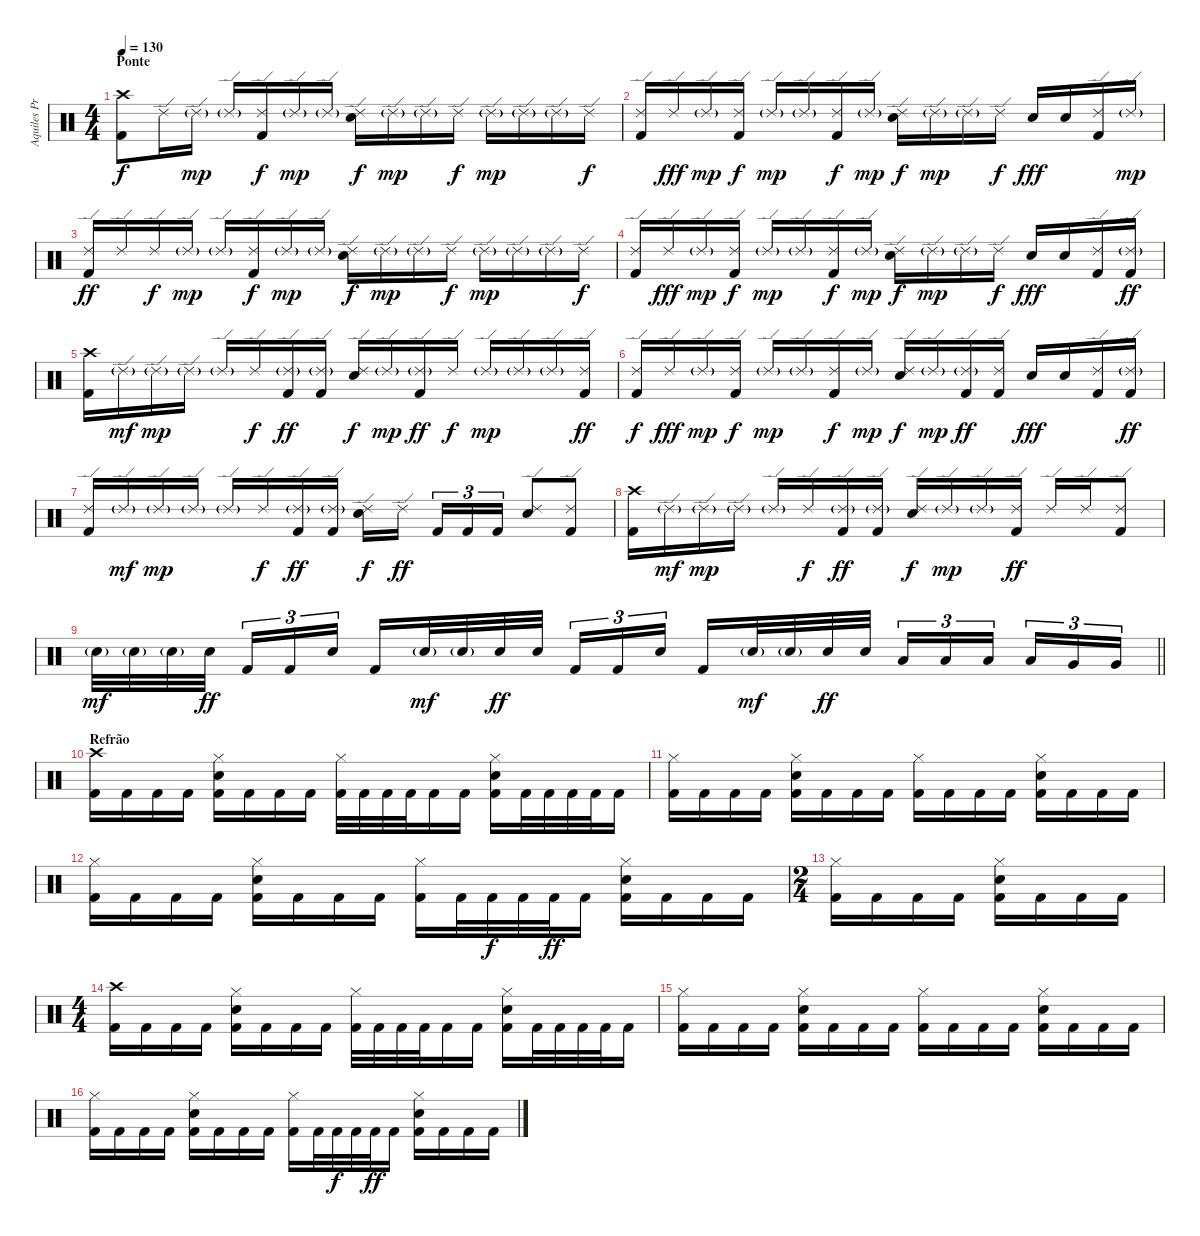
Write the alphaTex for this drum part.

\track ("Aquiles Priester" "Aquiles Pr") {instrument percussion}
\staff {score}
\articulation defaults
\ts (4 4)
\section ("" "Ponte")
\tempo 130
\clef neutral
\ks c
("Crash high (hit)" "Kick (hit) 2").8{dy f} "Ride (edge) 2".16 "Ride (edge) 2"{g}.16{dy mp} "Ride (edge) 2"{g}.16 ("Ride (edge) 2" "Kick (hit) 2").16{dy f} "Ride (edge) 2"{g}.16{dy mp} "Ride (edge) 2"{g}.16 ("Ride (edge) 2" "Electric Snare (hit)").16{dy f} "Ride (edge) 2"{g}.16{dy mp} "Ride (edge) 2"{g}.16 "Ride (edge) 2".16{dy f} "Ride (edge) 2"{g}.16{dy mp} "Ride (edge) 2"{g}.16 "Ride (edge) 2"{g}.16 "Ride (edge) 2".16{dy f} |
("Ride (edge) 2" "Kick (hit) 2").16 "Ride (edge) 2".16{dy fff} "Ride (edge) 2"{g}.16{dy mp} ("Ride (edge) 2" "Kick (hit) 2").16{dy f} "Ride (edge) 2"{g}.16{dy mp} "Ride (edge) 2"{g}.16 ("Ride (edge) 2" "Kick (hit) 2").16{dy f} "Ride (edge) 2"{g}.16{dy mp} ("Ride (edge) 2" "Electric Snare (hit)").16{dy f} "Ride (edge) 2"{g}.16{dy mp} "Ride (edge) 2"{g}.16 "Ride (edge) 2".16{dy f} "Electric Snare (hit)".16{dy fff} "Electric Snare (hit)".16 ("Ride (edge) 2" "Kick (hit) 2").16 "Ride (edge) 2"{g}.16{dy mp} |
("Ride (edge) 2" "Kick (hit) 2").16{dy ff} "Ride (edge) 2".16 "Ride (edge) 2".16{dy f} "Ride (edge) 2"{g}.16{dy mp} "Ride (edge) 2"{g}.16 ("Ride (edge) 2" "Kick (hit) 2").16{dy f} "Ride (edge) 2"{g}.16{dy mp} "Ride (edge) 2"{g}.16 ("Ride (edge) 2" "Electric Snare (hit)").16{dy f} "Ride (edge) 2"{g}.16{dy mp} "Ride (edge) 2"{g}.16 "Ride (edge) 2".16{dy f} "Ride (edge) 2"{g}.16{dy mp} "Ride (edge) 2"{g}.16 "Ride (edge) 2"{g}.16 "Ride (edge) 2".16{dy f} |
("Ride (edge) 2" "Kick (hit) 2").16 "Ride (edge) 2".16{dy fff} "Ride (edge) 2"{g}.16{dy mp} ("Ride (edge) 2" "Kick (hit) 2").16{dy f} "Ride (edge) 2"{g}.16{dy mp} "Ride (edge) 2"{g}.16 ("Ride (edge) 2" "Kick (hit) 2").16{dy f} "Ride (edge) 2"{g}.16{dy mp} ("Ride (edge) 2" "Electric Snare (hit)").16{dy f} "Ride (edge) 2"{g}.16{dy mp} "Ride (edge) 2"{g}.16 "Ride (edge) 2".16{dy f} "Electric Snare (hit)".16{dy fff} "Electric Snare (hit)".16 ("Ride (edge) 2" "Kick (hit) 2").16 ("Ride (edge) 2"{g} "Kick (hit) 2").16{dy ff} |
("Crash high (hit)" "Kick (hit) 2").16 "Ride (edge) 2"{g}.16{dy mf} "Ride (edge) 2"{g}.16{dy mp} "Ride (edge) 2"{g}.16 "Ride (edge) 2"{g}.16 "Ride (edge) 2".16{dy f} ("Ride (edge) 2"{g} "Kick (hit) 2").16{dy ff} ("Ride (edge) 2"{g} "Kick (hit) 2").16 ("Ride (edge) 2" "Electric Snare (hit)").16{dy f} "Ride (edge) 2"{g}.16{dy mp} ("Ride (edge) 2"{g} "Kick (hit) 2").16{dy ff} "Ride (edge) 2".16{dy f} "Ride (edge) 2"{g}.16{dy mp} "Ride (edge) 2"{g}.16 "Ride (edge) 2"{g}.16 ("Ride (edge) 2" "Kick (hit) 2").16{dy ff} |
("Ride (edge) 2" "Kick (hit) 2").16{dy f} "Ride (edge) 2".16{dy fff} "Ride (edge) 2"{g}.16{dy mp} ("Ride (edge) 2" "Kick (hit) 2").16{dy f} "Ride (edge) 2"{g}.16{dy mp} "Ride (edge) 2"{g}.16 ("Ride (edge) 2" "Kick (hit) 2").16{dy f} "Ride (edge) 2"{g}.16{dy mp} ("Ride (edge) 2" "Electric Snare (hit)").16{dy f} "Ride (edge) 2"{g}.16{dy mp} ("Ride (edge) 2"{g} "Kick (hit) 2").16{dy ff} ("Ride (edge) 2" "Kick (hit) 2").16 "Electric Snare (hit)".16{dy fff} "Electric Snare (hit)".16 ("Ride (edge) 2" "Kick (hit) 2").16 ("Ride (edge) 2"{g} "Kick (hit) 2").16{dy ff} |
("Ride (edge) 2" "Kick (hit) 2").16 "Ride (edge) 2"{g}.16{dy mf} "Ride (edge) 2"{g}.16{dy mp} "Ride (edge) 2"{g}.16 "Ride (edge) 2"{g}.16 "Ride (edge) 2".16{dy f} ("Ride (edge) 2"{g} "Kick (hit) 2").16{dy ff} ("Ride (edge) 2"{g} "Kick (hit) 2").16 ("Ride (edge) 2" "Electric Snare (hit)").16{dy f} "Ride (edge) 2".16{dy ff beam splitsecondary} "Kick (hit) 2".16{tu (3 2)} "Kick (hit) 2".16{tu (3 2)} "Kick (hit) 2".16{tu (3 2)} ("Ride (edge) 2" "Electric Snare (hit)").8 ("Ride (edge) 2" "Kick (hit) 2").8 |
("Crash high (hit)" "Kick (hit) 2").16 "Ride (edge) 2"{g}.16{dy mf} "Ride (edge) 2"{g}.16{dy mp} "Ride (edge) 2"{g}.16 "Ride (edge) 2"{g}.16 "Ride (edge) 2".16{dy f} ("Ride (edge) 2"{g} "Kick (hit) 2").16{dy ff} ("Ride (edge) 2"{g} "Kick (hit) 2").16 ("Ride (edge) 2" "Electric Snare (hit)").16{dy f} "Ride (edge) 2"{g}.16{dy mp} "Ride (edge) 2"{g}.16 ("Ride (edge) 2" "Kick (hit) 2").16{dy ff} "Ride (edge) 2".16 "Ride (edge) 2".16 ("Ride (edge) 2" "Kick (hit) 2").8 |
\barLineRight lightlight "Electric Snare (hit)"{g}.32{dy mf} "Electric Snare (hit)"{g}.32 "Electric Snare (hit)"{g}.32 "Electric Snare (hit)".32{dy ff beam splitsecondary} "Kick (hit) 2".16{tu (3 2)} "Kick (hit) 2".16{tu (3 2)} "Electric Snare (hit)".16{tu (3 2)} "Kick (hit) 2".16 "Electric Snare (hit)"{g}.32{dy mf} "Electric Snare (hit)"{g}.32 "Electric Snare (hit)".32{dy ff} "Electric Snare (hit)".32{beam splitsecondary} "Kick (hit) 2".16{tu (3 2)} "Kick (hit) 2".16{tu (3 2)} "Electric Snare (hit)".16{tu (3 2) beam splitsecondary} "Kick (hit) 2".16 "Electric Snare (hit)"{g}.32{dy mf} "Electric Snare (hit)"{g}.32 "Electric Snare (hit)".32{dy ff} "Electric Snare (hit)".32 "Low Tom (hit)".16{tu (3 2)} "Low Tom (hit)".16{tu (3 2)} "Low Tom (hit)".16{tu (3 2) beam splitsecondary} "Low Tom (hit)".16{tu (3 2)} "Very Low Tom (hit)".16{tu (3 2)} "Very Low Tom (hit)".16{tu (3 2)}
|
\section ("" "Refrão")
("Crash high (hit)" "Kick (hit) 2").16 "Kick (hit) 2".16 "Kick (hit) 2".16 "Kick (hit) 2".16 ("Hi-Hat (closed)" "Electric Snare (hit)" "Kick (hit) 2").16 "Kick (hit) 2".16 "Kick (hit) 2".16 "Kick (hit) 2".16 ("Hi-Hat (closed)" "Kick (hit) 2").32 "Kick (hit) 2".32 "Kick (hit) 2".32 "Kick (hit) 2".32 "Kick (hit) 2".16 "Kick (hit) 2".16 ("Hi-Hat (closed)" "Electric Snare (hit)" "Kick (hit) 2").16 "Kick (hit) 2".32 "Kick (hit) 2".32 "Kick (hit) 2".32 "Kick (hit) 2".32 "Kick (hit) 2".16 |
("Hi-Hat (closed)" "Kick (hit) 2").16 "Kick (hit) 2".16 "Kick (hit) 2".16 "Kick (hit) 2".16 ("Hi-Hat (closed)" "Electric Snare (hit)" "Kick (hit) 2").16 "Kick (hit) 2".16 "Kick (hit) 2".16 "Kick (hit) 2".16 ("Hi-Hat (closed)" "Kick (hit) 2").16 "Kick (hit) 2".16 "Kick (hit) 2".16 "Kick (hit) 2".16 ("Hi-Hat (closed)" "Electric Snare (hit)" "Kick (hit) 2").16 "Kick (hit) 2".16 "Kick (hit) 2".16 "Kick (hit) 2".16 |
("Hi-Hat (closed)" "Kick (hit) 2").16 "Kick (hit) 2".16 "Kick (hit) 2".16 "Kick (hit) 2".16 ("Hi-Hat (closed)" "Electric Snare (hit)" "Kick (hit) 2").16 "Kick (hit) 2".16 "Kick (hit) 2".16 "Kick (hit) 2".16 ("Hi-Hat (closed)" "Kick (hit) 2").16 "Kick (hit) 2".32 "Kick (hit) 2".32{dy f} "Kick (hit) 2".32 "Kick (hit) 2".32{dy ff} "Kick (hit) 2".16 ("Hi-Hat (closed)" "Electric Snare (hit)" "Kick (hit) 2").16 "Kick (hit) 2".16 "Kick (hit) 2".16 "Kick (hit) 2".16 |
\ts (2 4)
("Hi-Hat (closed)" "Kick (hit) 2").16 "Kick (hit) 2".16 "Kick (hit) 2".16 "Kick (hit) 2".16 ("Hi-Hat (closed)" "Electric Snare (hit)" "Kick (hit) 2").16 "Kick (hit) 2".16 "Kick (hit) 2".16 "Kick (hit) 2".16 |
\ts (4 4)
("Crash high (hit)" "Kick (hit) 2").16 "Kick (hit) 2".16 "Kick (hit) 2".16 "Kick (hit) 2".16 ("Hi-Hat (closed)" "Electric Snare (hit)" "Kick (hit) 2").16 "Kick (hit) 2".16 "Kick (hit) 2".16 "Kick (hit) 2".16 ("Hi-Hat (closed)" "Kick (hit) 2").32 "Kick (hit) 2".32 "Kick (hit) 2".32 "Kick (hit) 2".32 "Kick (hit) 2".16 "Kick (hit) 2".16 ("Hi-Hat (closed)" "Electric Snare (hit)" "Kick (hit) 2").16 "Kick (hit) 2".32 "Kick (hit) 2".32 "Kick (hit) 2".32 "Kick (hit) 2".32 "Kick (hit) 2".16 |
("Hi-Hat (closed)" "Kick (hit) 2").16 "Kick (hit) 2".16 "Kick (hit) 2".16 "Kick (hit) 2".16 ("Hi-Hat (closed)" "Electric Snare (hit)" "Kick (hit) 2").16 "Kick (hit) 2".16 "Kick (hit) 2".16 "Kick (hit) 2".16 ("Hi-Hat (closed)" "Kick (hit) 2").16 "Kick (hit) 2".16 "Kick (hit) 2".16 "Kick (hit) 2".16 ("Hi-Hat (closed)" "Electric Snare (hit)" "Kick (hit) 2").16 "Kick (hit) 2".16 "Kick (hit) 2".16 "Kick (hit) 2".16 |
("Hi-Hat (closed)" "Kick (hit) 2").16 "Kick (hit) 2".16 "Kick (hit) 2".16 "Kick (hit) 2".16 ("Hi-Hat (closed)" "Electric Snare (hit)" "Kick (hit) 2").16 "Kick (hit) 2".16 "Kick (hit) 2".16 "Kick (hit) 2".16 ("Hi-Hat (closed)" "Kick (hit) 2").16 "Kick (hit) 2".32 "Kick (hit) 2".32{dy f} "Kick (hit) 2".32 "Kick (hit) 2".32{dy ff} "Kick (hit) 2".16 ("Hi-Hat (closed)" "Electric Snare (hit)" "Kick (hit) 2").16 "Kick (hit) 2".16 "Kick (hit) 2".16 "Kick (hit) 2".16
